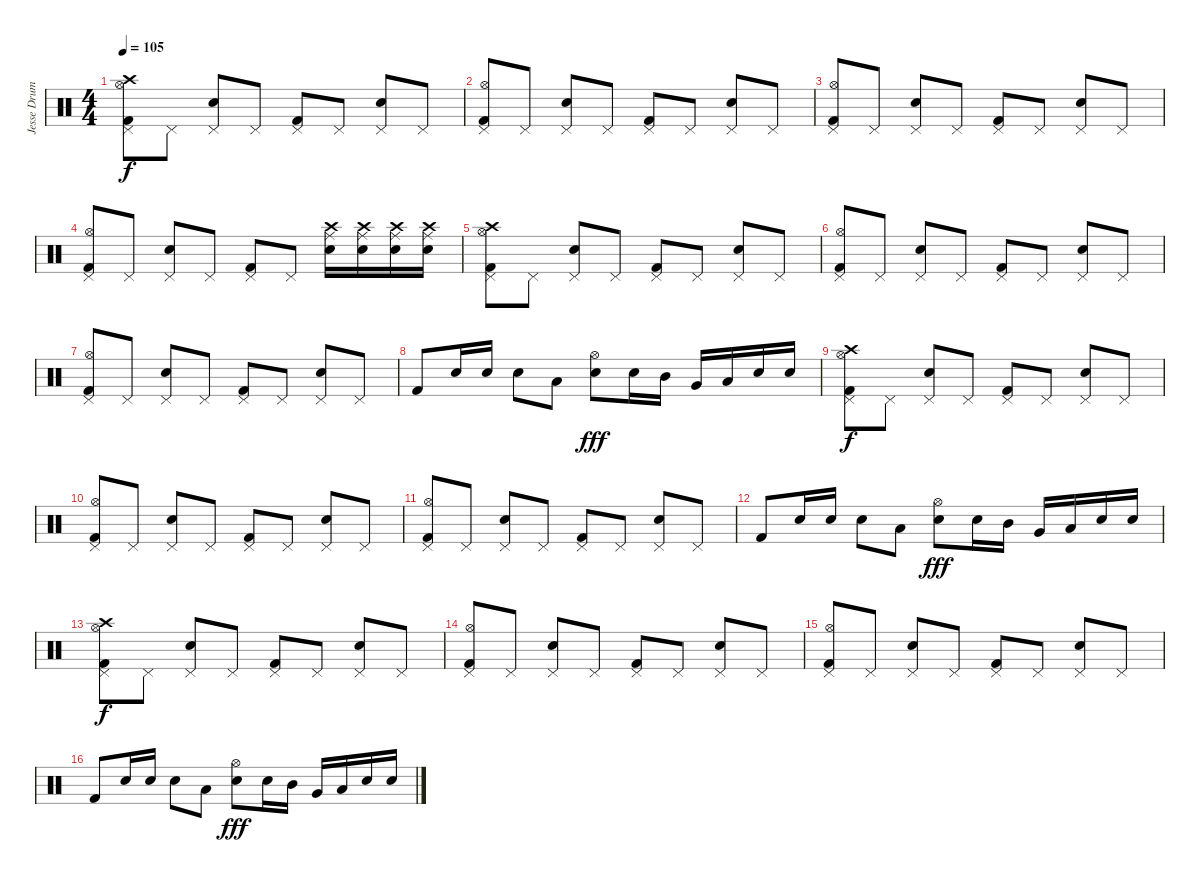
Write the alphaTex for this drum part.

\track ("Jesse Drums" "Jesse Drum") {instrument percussion}
\staff {score}
\articulation defaults
\ts (4 4)
\tempo 105
\clef neutral
\ks c
("Pedal Hi-Hat (hit)" "Hi-Hat (open)" "Kick (hit) 2" "Crash high (hit)").8{dy f} "Pedal Hi-Hat (hit)".8 ("Pedal Hi-Hat (hit)" "Electric Snare (hit)").8 "Pedal Hi-Hat (hit)".8 ("Pedal Hi-Hat (hit)" "Kick (hit) 2").8 "Pedal Hi-Hat (hit)".8 ("Pedal Hi-Hat (hit)" "Electric Snare (hit)").8 "Pedal Hi-Hat (hit)".8 |
("Pedal Hi-Hat (hit)" "Hi-Hat (open)" "Kick (hit) 2").8 "Pedal Hi-Hat (hit)".8 ("Pedal Hi-Hat (hit)" "Electric Snare (hit)").8 "Pedal Hi-Hat (hit)".8 ("Pedal Hi-Hat (hit)" "Kick (hit) 2").8 "Pedal Hi-Hat (hit)".8 ("Pedal Hi-Hat (hit)" "Electric Snare (hit)").8 "Pedal Hi-Hat (hit)".8 |
("Pedal Hi-Hat (hit)" "Hi-Hat (open)" "Kick (hit) 2").8 "Pedal Hi-Hat (hit)".8 ("Pedal Hi-Hat (hit)" "Electric Snare (hit)").8 "Pedal Hi-Hat (hit)".8 ("Pedal Hi-Hat (hit)" "Kick (hit) 2").8 "Pedal Hi-Hat (hit)".8 ("Pedal Hi-Hat (hit)" "Electric Snare (hit)").8 "Pedal Hi-Hat (hit)".8 |
("Pedal Hi-Hat (hit)" "Hi-Hat (open)" "Kick (hit) 2").8 "Pedal Hi-Hat (hit)".8 ("Pedal Hi-Hat (hit)" "Electric Snare (hit)").8 "Pedal Hi-Hat (hit)".8 ("Pedal Hi-Hat (hit)" "Kick (hit) 2").8 "Pedal Hi-Hat (hit)".8 ("Crash high (hit)" "Electric Snare (hit)" "Ride (middle)").16 ("Crash high (hit)" "Electric Snare (hit)" "Ride (middle)").16 ("Crash high (hit)" "Electric Snare (hit)" "Ride (middle)").16 ("Crash high (hit)" "Electric Snare (hit)" "Ride (middle)").16 |
("Pedal Hi-Hat (hit)" "Hi-Hat (open)" "Kick (hit) 2" "Crash high (hit)").8 "Pedal Hi-Hat (hit)".8 ("Pedal Hi-Hat (hit)" "Electric Snare (hit)").8 "Pedal Hi-Hat (hit)".8 ("Pedal Hi-Hat (hit)" "Kick (hit) 2").8 "Pedal Hi-Hat (hit)".8 ("Pedal Hi-Hat (hit)" "Electric Snare (hit)").8 "Pedal Hi-Hat (hit)".8 |
("Pedal Hi-Hat (hit)" "Hi-Hat (open)" "Kick (hit) 2").8 "Pedal Hi-Hat (hit)".8 ("Pedal Hi-Hat (hit)" "Electric Snare (hit)").8 "Pedal Hi-Hat (hit)".8 ("Pedal Hi-Hat (hit)" "Kick (hit) 2").8 "Pedal Hi-Hat (hit)".8 ("Pedal Hi-Hat (hit)" "Electric Snare (hit)").8 "Pedal Hi-Hat (hit)".8 |
("Pedal Hi-Hat (hit)" "Hi-Hat (open)" "Kick (hit) 2").8 "Pedal Hi-Hat (hit)".8 ("Pedal Hi-Hat (hit)" "Electric Snare (hit)").8 "Pedal Hi-Hat (hit)".8 ("Pedal Hi-Hat (hit)" "Kick (hit) 2").8 "Pedal Hi-Hat (hit)".8 ("Pedal Hi-Hat (hit)" "Electric Snare (hit)").8 "Pedal Hi-Hat (hit)".8 |
"Kick (hit) 2".8 "Electric Snare (hit)".16 "Electric Snare (hit)".16 "Electric Snare (hit)".8 "Low Tom (hit)".8 ("Hi-Hat (open)" "Electric Snare (hit)").8{dy fff} "Electric Snare (hit)".16 "Mid Tom (hit)".16 "Very Low Tom (hit)".16 "Low Tom (hit)".16 "Electric Snare (hit)".16 "Electric Snare (hit)".16 |
("Pedal Hi-Hat (hit)" "Hi-Hat (open)" "Kick (hit) 2" "Crash high (hit)").8{dy f} "Pedal Hi-Hat (hit)".8 ("Pedal Hi-Hat (hit)" "Electric Snare (hit)").8 "Pedal Hi-Hat (hit)".8 ("Pedal Hi-Hat (hit)" "Kick (hit) 2").8 "Pedal Hi-Hat (hit)".8 ("Pedal Hi-Hat (hit)" "Electric Snare (hit)").8 "Pedal Hi-Hat (hit)".8 |
("Pedal Hi-Hat (hit)" "Hi-Hat (open)" "Kick (hit) 2").8 "Pedal Hi-Hat (hit)".8 ("Pedal Hi-Hat (hit)" "Electric Snare (hit)").8 "Pedal Hi-Hat (hit)".8 ("Pedal Hi-Hat (hit)" "Kick (hit) 2").8 "Pedal Hi-Hat (hit)".8 ("Pedal Hi-Hat (hit)" "Electric Snare (hit)").8 "Pedal Hi-Hat (hit)".8 |
("Pedal Hi-Hat (hit)" "Hi-Hat (open)" "Kick (hit) 2").8 "Pedal Hi-Hat (hit)".8 ("Pedal Hi-Hat (hit)" "Electric Snare (hit)").8 "Pedal Hi-Hat (hit)".8 ("Pedal Hi-Hat (hit)" "Kick (hit) 2").8 "Pedal Hi-Hat (hit)".8 ("Pedal Hi-Hat (hit)" "Electric Snare (hit)").8 "Pedal Hi-Hat (hit)".8 |
"Kick (hit) 2".8 "Electric Snare (hit)".16 "Electric Snare (hit)".16 "Electric Snare (hit)".8 "Low Tom (hit)".8 ("Hi-Hat (open)" "Electric Snare (hit)").8{dy fff} "Electric Snare (hit)".16 "Mid Tom (hit)".16 "Very Low Tom (hit)".16 "Low Tom (hit)".16 "Electric Snare (hit)".16 "Electric Snare (hit)".16 |
("Pedal Hi-Hat (hit)" "Hi-Hat (open)" "Kick (hit) 2" "Crash high (hit)").8{dy f} "Pedal Hi-Hat (hit)".8 ("Pedal Hi-Hat (hit)" "Electric Snare (hit)").8 "Pedal Hi-Hat (hit)".8 ("Pedal Hi-Hat (hit)" "Kick (hit) 2").8 "Pedal Hi-Hat (hit)".8 ("Pedal Hi-Hat (hit)" "Electric Snare (hit)").8 "Pedal Hi-Hat (hit)".8 |
("Pedal Hi-Hat (hit)" "Hi-Hat (open)" "Kick (hit) 2").8 "Pedal Hi-Hat (hit)".8 ("Pedal Hi-Hat (hit)" "Electric Snare (hit)").8 "Pedal Hi-Hat (hit)".8 ("Pedal Hi-Hat (hit)" "Kick (hit) 2").8 "Pedal Hi-Hat (hit)".8 ("Pedal Hi-Hat (hit)" "Electric Snare (hit)").8 "Pedal Hi-Hat (hit)".8 |
("Pedal Hi-Hat (hit)" "Hi-Hat (open)" "Kick (hit) 2").8 "Pedal Hi-Hat (hit)".8 ("Pedal Hi-Hat (hit)" "Electric Snare (hit)").8 "Pedal Hi-Hat (hit)".8 ("Pedal Hi-Hat (hit)" "Kick (hit) 2").8 "Pedal Hi-Hat (hit)".8 ("Pedal Hi-Hat (hit)" "Electric Snare (hit)").8 "Pedal Hi-Hat (hit)".8 |
"Kick (hit) 2".8 "Electric Snare (hit)".16 "Electric Snare (hit)".16 "Electric Snare (hit)".8 "Low Tom (hit)".8 ("Hi-Hat (open)" "Electric Snare (hit)").8{dy fff} "Electric Snare (hit)".16 "Mid Tom (hit)".16 "Very Low Tom (hit)".16 "Low Tom (hit)".16 "Electric Snare (hit)".16 "Electric Snare (hit)".16
